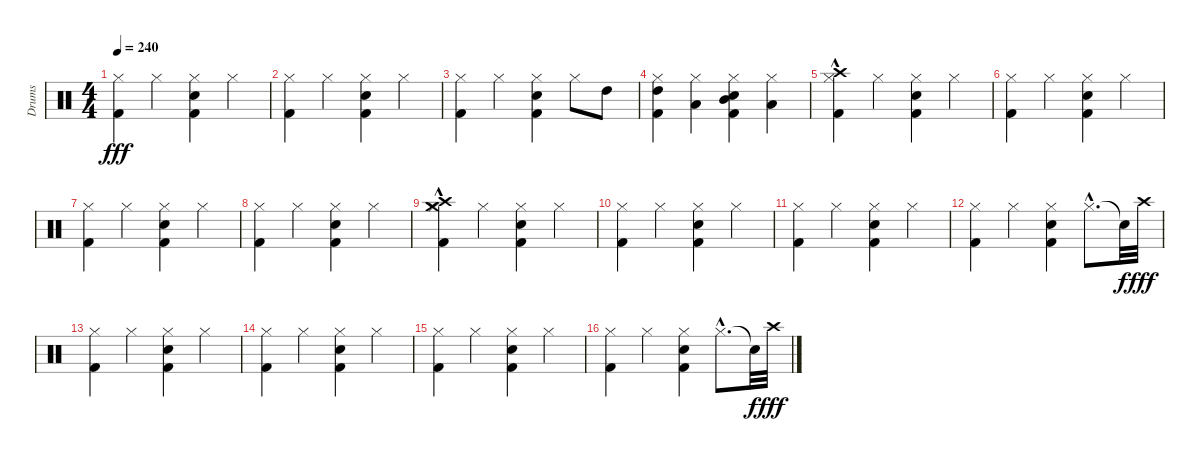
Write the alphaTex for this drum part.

\track ("Drums" "Drums") {instrument percussion}
\staff {score}
\articulation defaults
\ts (4 4)
\tempo 240
\clef neutral
\ks c
("Hi-Hat (closed)" "Kick (hit) 2").4{dy fff} "Hi-Hat (closed)".4 ("Hi-Hat (closed)" "Kick (hit) 2" "Snare (hit) 2").4 "Hi-Hat (closed)".4 |
("Hi-Hat (closed)" "Kick (hit) 2").4 "Hi-Hat (closed)".4 ("Hi-Hat (closed)" "Kick (hit) 2" "Snare (hit) 2").4 "Hi-Hat (closed)".4 |
("Hi-Hat (closed)" "Kick (hit) 2").4 "Hi-Hat (closed)".4 ("Hi-Hat (closed)" "Snare (hit) 2" "Kick (hit) 2").4 "Hi-Hat (closed)".8 "High Tom (hit)".8 |
("High Tom (hit)" "Hi-Hat (closed)" "Kick (hit) 2").4 ("Low Tom (hit)" "Hi-Hat (closed)").4 ("Mid Tom (hit)" "Hi-Hat (closed)" "Kick (hit) 2" "Snare (hit) 2").4 ("Low Floor Tom (hit)" "Hi-Hat (closed)").4 |
("Crash high (hit)"{hac} "Hi-Hat (closed)" "Kick (hit) 2").4 "Hi-Hat (closed)".4 ("Hi-Hat (closed)" "Kick (hit) 2" "Snare (hit) 2").4 "Hi-Hat (closed)".4 |
("Hi-Hat (closed)" "Kick (hit) 2").4 "Hi-Hat (closed)".4 ("Hi-Hat (closed)" "Snare (hit) 2" "Kick (hit) 2").4 "Hi-Hat (closed)".4 |
("Hi-Hat (closed)" "Kick (hit) 2").4 "Hi-Hat (closed)".4 ("Hi-Hat (closed)" "Kick (hit) 2" "Snare (hit) 2").4 "Hi-Hat (closed)".4 |
("Hi-Hat (closed)" "Kick (hit) 2").4 "Hi-Hat (closed)".4 ("Hi-Hat (closed)" "Kick (hit) 2" "Snare (hit) 2").4 "Hi-Hat (closed)".4 |
("Crash high (hit)" "Kick (hit) 2" "Crash medium (hit)"{hac} "Hi-Hat (closed)").4 "Hi-Hat (closed)".4 ("Kick (hit) 2" "Snare (hit) 2" "Hi-Hat (closed)").4 "Hi-Hat (closed)".4 |
("Kick (hit) 2" "Hi-Hat (closed)").4 "Hi-Hat (closed)".4 ("Snare (hit) 2" "Kick (hit) 2" "Hi-Hat (closed)").4 "Hi-Hat (closed)".4 |
("Kick (hit) 2" "Hi-Hat (closed)").4 "Hi-Hat (closed)".4 ("Snare (hit) 2" "Hi-Hat (closed)" "Kick (hit) 2").4 "Hi-Hat (closed)".4 |
("Kick (hit) 2" "Hi-Hat (closed)").4 "Hi-Hat (closed)".4 ("Snare (hit) 2" "Kick (hit) 2" "Hi-Hat (closed)").4 "Hi-Hat (closed)"{hac}.8{d} "Snare (hit)"{t}.32{dy f} "Crash high (hit)".32{dy fff} |
("Kick (hit) 2" "Hi-Hat (closed)").4 "Hi-Hat (closed)".4 ("Kick (hit) 2" "Snare (hit) 2" "Hi-Hat (closed)").4 "Hi-Hat (closed)".4 |
("Kick (hit) 2" "Hi-Hat (closed)").4 "Hi-Hat (closed)".4 ("Hi-Hat (closed)" "Snare (hit) 2" "Kick (hit) 2").4 "Hi-Hat (closed)".4 |
("Kick (hit) 2" "Hi-Hat (closed)").4 "Hi-Hat (closed)".4 ("Kick (hit) 2" "Hi-Hat (closed)" "Snare (hit) 2").4 "Hi-Hat (closed)".4 |
("Kick (hit) 2" "Hi-Hat (closed)").4 "Hi-Hat (closed)".4 ("Snare (hit) 2" "Kick (hit) 2" "Hi-Hat (closed)").4 "Hi-Hat (closed)"{hac}.8{d} "Snare (hit)"{t}.32{dy f} "Crash high (hit)".32{dy fff}
